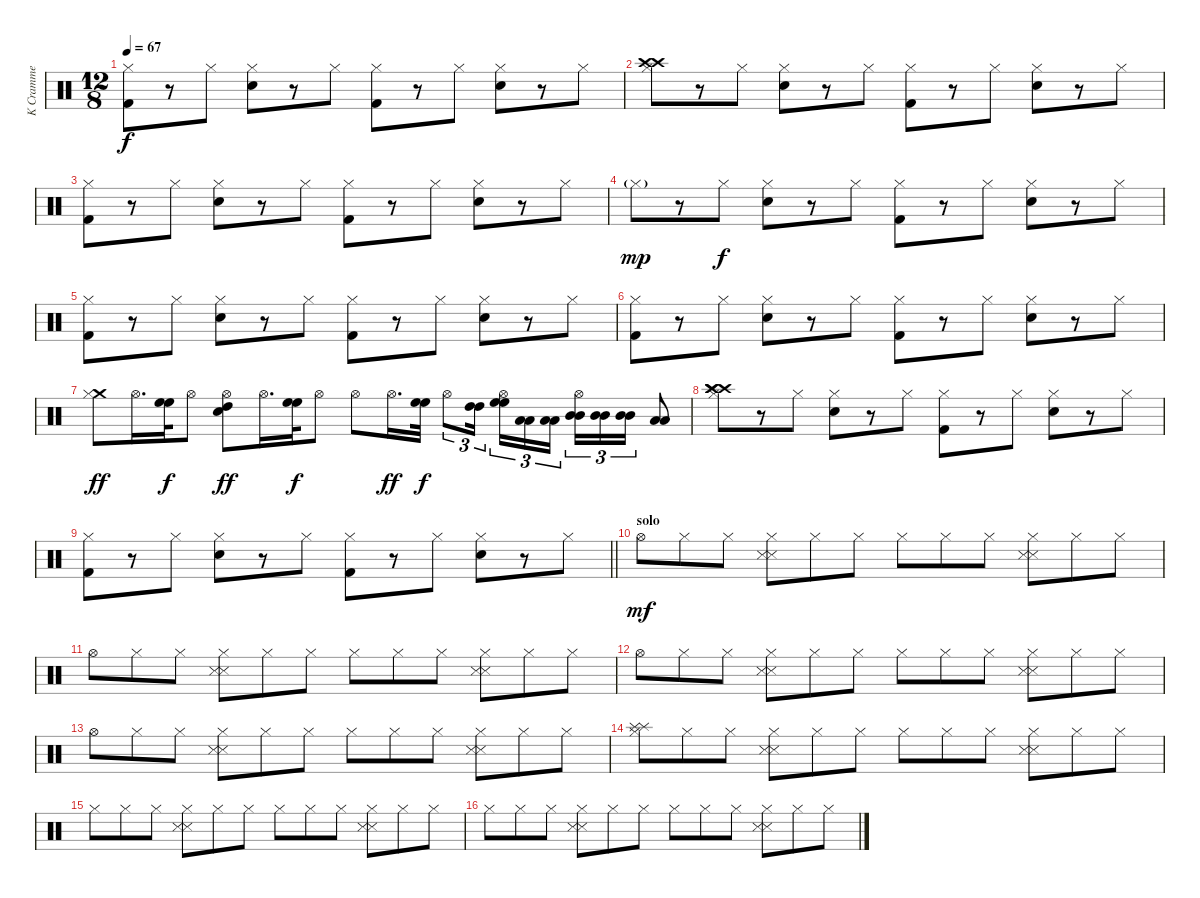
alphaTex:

\track ("K Cramme" "K Cramme") {instrument percussion}
\staff {score}
\articulation defaults
\ts (12 8)
\tempo 67
\clef neutral
\ks c
("Kick (hit) 2" "Hi-Hat (closed)").8{dy f} r.8 "Hi-Hat (closed)".8 ("Snare (hit) 2" "Hi-Hat (closed)").8 r.8 "Hi-Hat (closed)".8 ("Kick (hit) 2" "Hi-Hat (closed)").8 r.8 "Hi-Hat (closed)".8 ("Snare (hit) 2" "Hi-Hat (closed)").8 r.8 "Hi-Hat (closed)".8 |
("Crash high (hit)" "Crash high (hit)" "Hi-Hat (closed)").8 r.8 "Hi-Hat (closed)".8 ("Snare (hit) 2" "Hi-Hat (closed)").8 r.8 "Hi-Hat (closed)".8 ("Kick (hit) 2" "Hi-Hat (closed)").8 r.8 "Hi-Hat (closed)".8 ("Snare (hit) 2" "Hi-Hat (closed)").8 r.8 "Hi-Hat (closed)".8 |
("Kick (hit) 2" "Hi-Hat (closed)").8 r.8 "Hi-Hat (closed)".8 ("Snare (hit) 2" "Hi-Hat (closed)").8 r.8 "Hi-Hat (closed)".8 ("Kick (hit) 2" "Hi-Hat (closed)").8 r.8 "Hi-Hat (closed)".8 ("Snare (hit) 2" "Hi-Hat (closed)").8 r.8 "Hi-Hat (closed)".8 |
"Hi-Hat (closed)"{g}.8{dy mp} r.8 "Hi-Hat (closed)".8{dy f} ("Snare (hit) 2" "Hi-Hat (closed)").8 r.8 "Hi-Hat (closed)".8 ("Kick (hit) 2" "Hi-Hat (closed)").8 r.8 "Hi-Hat (closed)".8 ("Snare (hit) 2" "Hi-Hat (closed)").8 r.8 "Hi-Hat (closed)".8 |
("Kick (hit) 2" "Hi-Hat (closed)").8 r.8 "Hi-Hat (closed)".8 ("Snare (hit) 2" "Hi-Hat (closed)").8 r.8 "Hi-Hat (closed)".8 ("Kick (hit) 2" "Hi-Hat (closed)").8 r.8 "Hi-Hat (closed)".8 ("Snare (hit) 2" "Hi-Hat (closed)").8 r.8 "Hi-Hat (closed)".8 |
("Kick (hit) 2" "Hi-Hat (closed)").8 r.8 "Hi-Hat (closed)".8 ("Snare (hit) 2" "Hi-Hat (closed)").8 r.8 "Hi-Hat (closed)".8 ("Kick (hit) 2" "Hi-Hat (closed)").8 r.8 "Hi-Hat (closed)".8 ("Snare (hit) 2" "Hi-Hat (closed)").8 r.8 "Hi-Hat (closed)".8 |
("Crash medium (hit)" "Hi-Hat (closed)").8{dy ff} "Hi-Hat (open)".16{d} ("High Floor Tom (hit)" "High Floor Tom (hit)").32{dy f} "Hi-Hat (open)".8 ("High Tom (hit)" "Snare (hit) 2" "Hi-Hat (open)").8{dy ff} "Hi-Hat (open)".16{d} ("High Floor Tom (hit)" "High Floor Tom (hit)").32{dy f} "Hi-Hat (open)".8 "Hi-Hat (open)".8 "Hi-Hat (open)".16{d dy ff} ("High Floor Tom (hit)" "High Floor Tom (hit)").32{dy f} "Hi-Hat (open)".8{tu (3 2)} ("High Tom (hit)" "High Tom (hit)").16{tu (3 2)} ("High Floor Tom (hit)" "High Floor Tom (hit)" "Hi-Hat (open)").16{tu (3 2)} ("Low Floor Tom (hit)" "Low Floor Tom (hit)").16{tu (3 2)} ("Low Tom (hit)" "Low Tom (hit)").16{tu (3 2) beam splitsecondary} ("Mid Tom (hit)" "Mid Tom (hit)" "Hi-Hat (open)").16{tu (3 2)} ("Mid Tom (hit)" "Mid Tom (hit)").16{tu (3 2)} ("Mid Tom (hit)" "Mid Tom (hit)").16{tu (3 2)} ("Low Tom (hit)" "Low Tom (hit)").8 |
("Crash high (hit)" "Crash high (hit)" "Crash high (hit)" "Hi-Hat (closed)").8 r.8 "Hi-Hat (closed)".8 ("Snare (hit) 2" "Hi-Hat (closed)").8 r.8 "Hi-Hat (closed)".8 ("Kick (hit) 2" "Hi-Hat (closed)").8 r.8 "Hi-Hat (closed)".8 ("Snare (hit) 2" "Hi-Hat (closed)").8 r.8 "Hi-Hat (closed)".8 |
\barLineRight lightlight
("Kick (hit) 2" "Hi-Hat (closed)").8 r.8 "Hi-Hat (closed)".8 ("Snare (hit) 2" "Hi-Hat (closed)").8 r.8 "Hi-Hat (closed)".8 ("Kick (hit) 2" "Hi-Hat (closed)").8 r.8 "Hi-Hat (closed)".8 ("Snare (hit) 2" "Hi-Hat (closed)").8 r.8 "Hi-Hat (closed)".8 |
\section ("" "solo")
"Hi-Hat (open)".8{dy mf} "Hi-Hat (closed)".8 "Hi-Hat (closed)".8 ("Snare (side stick) 3" "Snare (side stick) 3" "Hi-Hat (closed)").8 "Hi-Hat (closed)".8 "Hi-Hat (closed)".8 "Hi-Hat (closed)".8 "Hi-Hat (closed)".8 "Hi-Hat (closed)".8 ("Snare (side stick) 3" "Snare (side stick) 3" "Hi-Hat (closed)").8 "Hi-Hat (closed)".8 "Hi-Hat (closed)".8 |
"Hi-Hat (open)".8 "Hi-Hat (closed)".8 "Hi-Hat (closed)".8 ("Snare (side stick) 3" "Snare (side stick) 3" "Hi-Hat (closed)").8 "Hi-Hat (closed)".8 "Hi-Hat (closed)".8 "Hi-Hat (closed)".8 "Hi-Hat (closed)".8 "Hi-Hat (closed)".8 ("Snare (side stick) 3" "Snare (side stick) 3" "Hi-Hat (closed)").8 "Hi-Hat (closed)".8 "Hi-Hat (closed)".8 |
"Hi-Hat (open)".8 "Hi-Hat (closed)".8 "Hi-Hat (closed)".8 ("Snare (side stick) 3" "Snare (side stick) 3" "Hi-Hat (closed)").8 "Hi-Hat (closed)".8 "Hi-Hat (closed)".8 "Hi-Hat (closed)".8 "Hi-Hat (closed)".8 "Hi-Hat (closed)".8 ("Snare (side stick) 3" "Snare (side stick) 3" "Hi-Hat (closed)").8 "Hi-Hat (closed)".8 "Hi-Hat (closed)".8 |
"Hi-Hat (open)".8 "Hi-Hat (closed)".8 "Hi-Hat (closed)".8 ("Snare (side stick) 3" "Snare (side stick) 3" "Hi-Hat (closed)").8 "Hi-Hat (closed)".8 "Hi-Hat (closed)".8 "Hi-Hat (closed)".8 "Hi-Hat (closed)".8 "Hi-Hat (closed)".8 ("Snare (side stick) 3" "Snare (side stick) 3" "Hi-Hat (closed)").8 "Hi-Hat (closed)".8 "Hi-Hat (closed)".8 |
("Splash (hit)" "Splash (hit)" "Hi-Hat (closed)").8 "Hi-Hat (closed)".8 "Hi-Hat (closed)".8 ("Snare (side stick) 3" "Snare (side stick) 3" "Hi-Hat (closed)").8 "Hi-Hat (closed)".8 "Hi-Hat (closed)".8 "Hi-Hat (closed)".8 "Hi-Hat (closed)".8 "Hi-Hat (closed)".8 ("Snare (side stick) 3" "Snare (side stick) 3" "Hi-Hat (closed)").8 "Hi-Hat (closed)".8 "Hi-Hat (closed)".8 |
"Hi-Hat (closed)".8 "Hi-Hat (closed)".8 "Hi-Hat (closed)".8 ("Snare (side stick) 3" "Snare (side stick) 3" "Hi-Hat (closed)").8 "Hi-Hat (closed)".8 "Hi-Hat (closed)".8 "Hi-Hat (closed)".8 "Hi-Hat (closed)".8 "Hi-Hat (closed)".8 ("Snare (side stick) 3" "Snare (side stick) 3" "Hi-Hat (closed)").8 "Hi-Hat (closed)".8 "Hi-Hat (closed)".8 |
"Hi-Hat (closed)".8 "Hi-Hat (closed)".8 "Hi-Hat (closed)".8 ("Snare (side stick) 3" "Snare (side stick) 3" "Hi-Hat (closed)").8 "Hi-Hat (closed)".8 "Hi-Hat (closed)".8 "Hi-Hat (closed)".8 "Hi-Hat (closed)".8 "Hi-Hat (closed)".8 ("Snare (side stick) 3" "Snare (side stick) 3" "Hi-Hat (closed)").8 "Hi-Hat (closed)".8 "Hi-Hat (closed)".8
